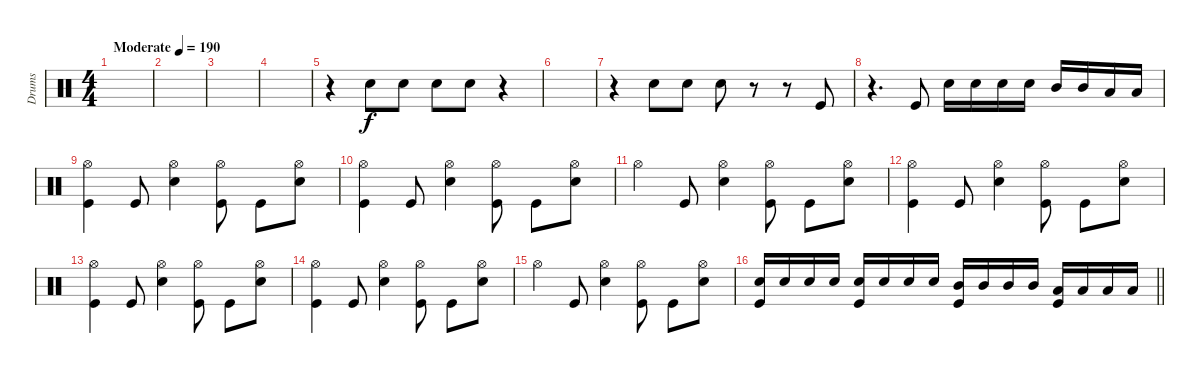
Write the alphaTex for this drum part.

\track ("Drums" "Drums") {instrument percussion}
\staff {score}
\articulation defaults
\ts (4 4)
\tempo (190 "Moderate")
\clef neutral
\ks c
|
|
|
|
r.4 "Snare (hit) 2".8 "Snare (hit) 2".8 "Snare (hit) 2".8 "Snare (hit) 2".8 r.4 |
|
r.4 "Snare (hit) 2".8 "Snare (hit) 2".8 "Snare (hit) 2".8 r.8 r.8 "Kick (hit)".8 |
r.4{d} "Kick (hit)".8 "Snare (hit) 2".16 "Snare (hit) 2".16 "Snare (hit) 2".16 "Snare (hit) 2".16 "Mid Tom (hit)".16 "Mid Tom (hit)".16 "Low Tom (hit)".16 "Low Tom (hit)".16 |
("Hi-Hat (open)" "Kick (hit)").4 "Kick (hit)".8 ("Hi-Hat (open)" "Snare (hit) 2").4 ("Hi-Hat (open)" "Kick (hit)").8 "Kick (hit)".8 ("Hi-Hat (open)" "Snare (hit) 2").8 |
("Hi-Hat (open)" "Kick (hit)").4 "Kick (hit)".8 ("Hi-Hat (open)" "Snare (hit) 2").4 ("Hi-Hat (open)" "Kick (hit)").8 "Kick (hit)".8 ("Hi-Hat (open)" "Snare (hit) 2").8 |
"Hi-Hat (open)".4 "Kick (hit)".8 ("Hi-Hat (open)" "Snare (hit) 2").4 ("Hi-Hat (open)" "Kick (hit)").8 "Kick (hit)".8 ("Hi-Hat (open)" "Snare (hit) 2").8 |
("Hi-Hat (open)" "Kick (hit)").4 "Kick (hit)".8 ("Hi-Hat (open)" "Snare (hit) 2").4 ("Hi-Hat (open)" "Kick (hit)").8 "Kick (hit)".8 ("Hi-Hat (open)" "Snare (hit) 2").8 |
("Hi-Hat (open)" "Kick (hit)").4 "Kick (hit)".8 ("Hi-Hat (open)" "Snare (hit) 2").4 ("Hi-Hat (open)" "Kick (hit)").8 "Kick (hit)".8 ("Hi-Hat (open)" "Snare (hit) 2").8 |
("Hi-Hat (open)" "Kick (hit)").4 "Kick (hit)".8 ("Hi-Hat (open)" "Snare (hit) 2").4 ("Hi-Hat (open)" "Kick (hit)").8 "Kick (hit)".8 ("Hi-Hat (open)" "Snare (hit) 2").8 |
"Hi-Hat (open)".4 "Kick (hit)".8 ("Hi-Hat (open)" "Snare (hit) 2").4 ("Hi-Hat (open)" "Kick (hit)").8 "Kick (hit)".8 ("Hi-Hat (open)" "Snare (hit) 2").8 |
\barLineRight lightlight
("Snare (hit) 2" "Kick (hit)").16 "Snare (hit) 2".16 "Snare (hit) 2".16 "Snare (hit) 2".16 ("Snare (hit) 2" "Kick (hit)").16 "Snare (hit) 2".16 "Snare (hit) 2".16 "Snare (hit) 2".16 ("Mid Tom (hit)" "Kick (hit)").16 "Mid Tom (hit)".16 "Mid Tom (hit)".16 "Mid Tom (hit)".16 ("Low Tom (hit)" "Kick (hit)").16 "Low Tom (hit)".16 "Low Tom (hit)".16 "Low Tom (hit)".16
